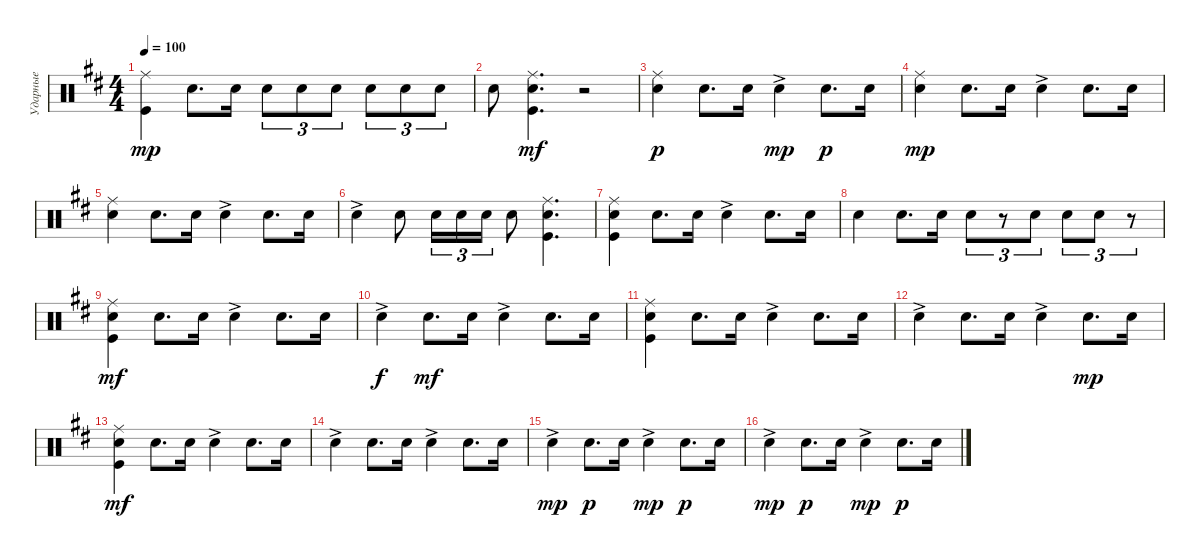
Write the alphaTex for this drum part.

\track ("Ударные" "Ударные") {instrument percussion}
\staff {score}
\articulation defaults
\ts (4 4)
\tempo 100
\clef neutral
\ks d
("Ride (middle)" "Kick (hit)").4{dy mp} "Snare (hit) 2".8{d} "Snare (hit) 2".16 "Snare (hit) 2".8{tu (3 2)} "Snare (hit) 2".8{tu (3 2)} "Snare (hit) 2".8{tu (3 2)} "Snare (hit) 2".8{tu (3 2)} "Snare (hit) 2".8{tu (3 2)} "Snare (hit) 2".8{tu (3 2)} |
"Snare (hit) 2".8 ("Kick (hit)" "Snare (hit) 2" "Ride (middle)").4{d dy mf} r.2 |
("Ride (middle)" "Snare (hit) 2").4{dy p} "Snare (hit) 2".8{d} "Snare (hit) 2".16 "Snare (hit) 2"{ac}.4{dy mp} "Snare (hit) 2".8{d dy p} "Snare (hit) 2".16 |
("Ride (middle)" "Snare (hit) 2").4{dy mp} "Snare (hit) 2".8{d} "Snare (hit) 2".16 "Snare (hit) 2"{ac}.4 "Snare (hit) 2".8{d} "Snare (hit) 2".16 |
("Ride (middle)" "Snare (hit) 2").4 "Snare (hit) 2".8{d} "Snare (hit) 2".16 "Snare (hit) 2"{ac}.4 "Snare (hit) 2".8{d} "Snare (hit) 2".16 |
"Snare (hit) 2"{ac}.4 "Snare (hit) 2".8 "Snare (hit) 2".16{tu (3 2)} "Snare (hit) 2".16{tu (3 2) beam merge} "Snare (hit) 2".16{tu (3 2) beam split} "Snare (hit) 2".8 ("Ride (middle)" "Kick (hit)" "Snare (hit) 2").4{d} |
("Ride (middle)" "Snare (hit) 2" "Kick (hit)").4 "Snare (hit) 2".8{d} "Snare (hit) 2".16 "Snare (hit) 2"{ac}.4 "Snare (hit) 2".8{d} "Snare (hit) 2".16 |
"Snare (hit) 2".4 "Snare (hit) 2".8{d} "Snare (hit) 2".16 "Snare (hit) 2".8{tu (3 2)} r.8{tu (3 2)} "Snare (hit) 2".8{tu (3 2)} "Snare (hit) 2".8{tu (3 2)} "Snare (hit) 2".8{tu (3 2)} r.8{tu (3 2)} |
("Ride (middle)" "Snare (hit) 2" "Kick (hit)").4{dy mf} "Snare (hit) 2".8{d} "Snare (hit) 2".16 "Snare (hit) 2"{ac}.4 "Snare (hit) 2".8{d} "Snare (hit) 2".16 |
"Snare (hit) 2"{ac}.4{dy f} "Snare (hit) 2".8{d dy mf} "Snare (hit) 2".16 "Snare (hit) 2"{ac}.4 "Snare (hit) 2".8{d} "Snare (hit) 2".16 |
("Ride (middle)" "Snare (hit) 2" "Kick (hit)").4 "Snare (hit) 2".8{d} "Snare (hit) 2".16 "Snare (hit) 2"{ac}.4 "Snare (hit) 2".8{d} "Snare (hit) 2".16 |
"Snare (hit) 2"{ac}.4 "Snare (hit) 2".8{d} "Snare (hit) 2".16 "Snare (hit) 2"{ac}.4 "Snare (hit) 2".8{d dy mp} "Snare (hit) 2".16 |
("Ride (middle)" "Snare (hit) 2" "Kick (hit)").4{dy mf} "Snare (hit) 2".8{d} "Snare (hit) 2".16 "Snare (hit) 2"{ac}.4 "Snare (hit) 2".8{d} "Snare (hit) 2".16 |
"Snare (hit) 2"{ac}.4 "Snare (hit) 2".8{d} "Snare (hit) 2".16 "Snare (hit) 2"{ac}.4 "Snare (hit) 2".8{d} "Snare (hit) 2".16 |
"Snare (hit) 2"{ac}.4{dy mp} "Snare (hit) 2".8{d dy p} "Snare (hit) 2".16 "Snare (hit) 2"{ac}.4{dy mp} "Snare (hit) 2".8{d dy p} "Snare (hit) 2".16 |
"Snare (hit) 2"{ac}.4{dy mp} "Snare (hit) 2".8{d dy p} "Snare (hit) 2".16 "Snare (hit) 2"{ac}.4{dy mp} "Snare (hit) 2".8{d dy p} "Snare (hit) 2".16
